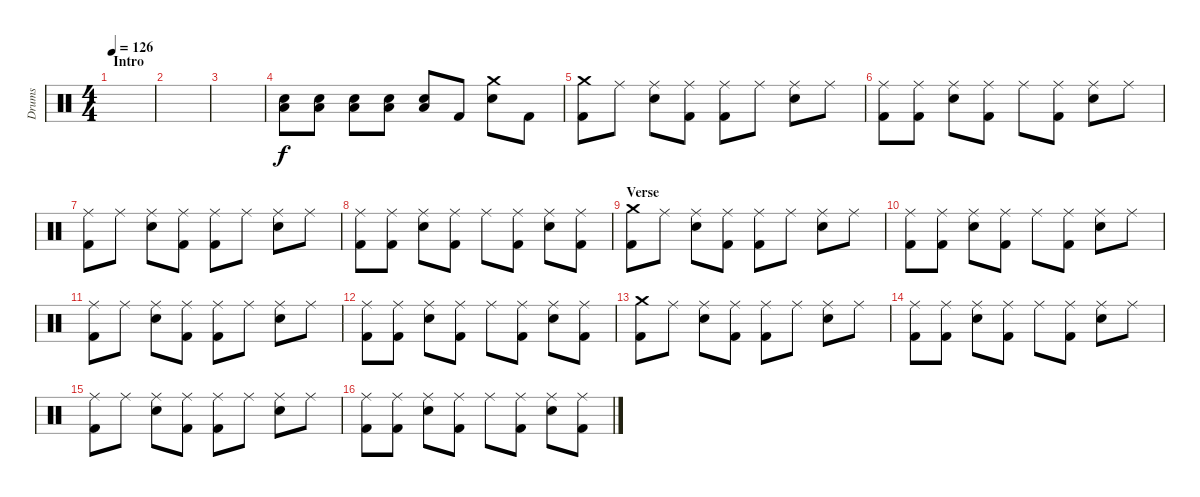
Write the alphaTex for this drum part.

\track ("Drums" "Drums") {instrument percussion}
\staff {score}
\articulation defaults
\ts (4 4)
\section ("" "Intro")
\tempo 126
\clef neutral
\ks c
|
|
|
("Snare (hit) 2" "Low Tom (hit)").8{volume 16} ("Snare (hit) 2" "Low Tom (hit)").8 ("Snare (hit) 2" "Low Tom (hit)").8 ("Snare (hit) 2" "Low Tom (hit)").8 ("Snare (hit) 2" "Low Tom (hit)").8 "Kick (hit) 2".8 ("Crash medium (hit)" "Snare (hit) 2").8 "Kick (hit) 2".8 |
("Crash medium (hit)" "Kick (hit) 2").8 "Ride (middle)".8 ("Ride (middle)" "Snare (hit) 2").8 ("Ride (middle)" "Kick (hit) 2").8 ("Ride (middle)" "Kick (hit) 2").8 "Ride (middle)".8 ("Ride (middle)" "Snare (hit) 2").8 "Ride (middle)".8 |
("Ride (middle)" "Kick (hit) 2").8 ("Ride (middle)" "Kick (hit) 2").8 ("Ride (middle)" "Snare (hit) 2").8 ("Ride (middle)" "Kick (hit) 2").8 "Ride (middle)".8 ("Ride (middle)" "Kick (hit) 2").8 ("Ride (middle)" "Snare (hit) 2").8 "Ride (middle)".8 |
("Ride (middle)" "Kick (hit) 2").8 "Ride (middle)".8 ("Ride (middle)" "Snare (hit) 2").8 ("Ride (middle)" "Kick (hit) 2").8 ("Ride (middle)" "Kick (hit) 2").8 "Ride (middle)".8 ("Ride (middle)" "Snare (hit) 2").8 "Ride (middle)".8 |
("Ride (middle)" "Kick (hit) 2").8 ("Ride (middle)" "Kick (hit) 2").8 ("Ride (middle)" "Snare (hit) 2").8 ("Ride (middle)" "Kick (hit) 2").8 "Ride (middle)".8 ("Ride (middle)" "Kick (hit) 2").8 ("Ride (middle)" "Snare (hit) 2").8 ("Ride (middle)" "Kick (hit) 2").8 |
\section ("" "Verse")
("Crash medium (hit)" "Kick (hit) 2").8 "Ride (middle)".8 ("Ride (middle)" "Snare (hit) 2").8 ("Ride (middle)" "Kick (hit) 2").8 ("Ride (middle)" "Kick (hit) 2").8 "Ride (middle)".8 ("Ride (middle)" "Snare (hit) 2").8 "Ride (middle)".8 |
("Ride (middle)" "Kick (hit) 2").8 ("Ride (middle)" "Kick (hit) 2").8 ("Ride (middle)" "Snare (hit) 2").8 ("Ride (middle)" "Kick (hit) 2").8 "Ride (middle)".8 ("Ride (middle)" "Kick (hit) 2").8 ("Ride (middle)" "Snare (hit) 2").8 "Ride (middle)".8 |
("Ride (middle)" "Kick (hit) 2").8 "Ride (middle)".8 ("Ride (middle)" "Snare (hit) 2").8 ("Ride (middle)" "Kick (hit) 2").8 ("Ride (middle)" "Kick (hit) 2").8 "Ride (middle)".8 ("Ride (middle)" "Snare (hit) 2").8 "Ride (middle)".8 |
("Ride (middle)" "Kick (hit) 2").8 ("Ride (middle)" "Kick (hit) 2").8 ("Ride (middle)" "Snare (hit) 2").8 ("Ride (middle)" "Kick (hit) 2").8 "Ride (middle)".8 ("Ride (middle)" "Kick (hit) 2").8 ("Ride (middle)" "Snare (hit) 2").8 ("Ride (middle)" "Kick (hit) 2").8 |
("Crash medium (hit)" "Kick (hit) 2").8 "Ride (middle)".8 ("Ride (middle)" "Snare (hit) 2").8 ("Ride (middle)" "Kick (hit) 2").8 ("Ride (middle)" "Kick (hit) 2").8 "Ride (middle)".8 ("Ride (middle)" "Snare (hit) 2").8 "Ride (middle)".8 |
("Ride (middle)" "Kick (hit) 2").8 ("Ride (middle)" "Kick (hit) 2").8 ("Ride (middle)" "Snare (hit) 2").8 ("Ride (middle)" "Kick (hit) 2").8 "Ride (middle)".8 ("Ride (middle)" "Kick (hit) 2").8 ("Ride (middle)" "Snare (hit) 2").8 "Ride (middle)".8 |
("Ride (middle)" "Kick (hit) 2").8 "Ride (middle)".8 ("Ride (middle)" "Snare (hit) 2").8 ("Ride (middle)" "Kick (hit) 2").8 ("Ride (middle)" "Kick (hit) 2").8 "Ride (middle)".8 ("Ride (middle)" "Snare (hit) 2").8 "Ride (middle)".8 |
("Ride (middle)" "Kick (hit) 2").8 ("Ride (middle)" "Kick (hit) 2").8 ("Ride (middle)" "Snare (hit) 2").8 ("Ride (middle)" "Kick (hit) 2").8 "Ride (middle)".8 ("Ride (middle)" "Kick (hit) 2").8 ("Ride (middle)" "Snare (hit) 2").8 ("Ride (middle)" "Kick (hit) 2").8
